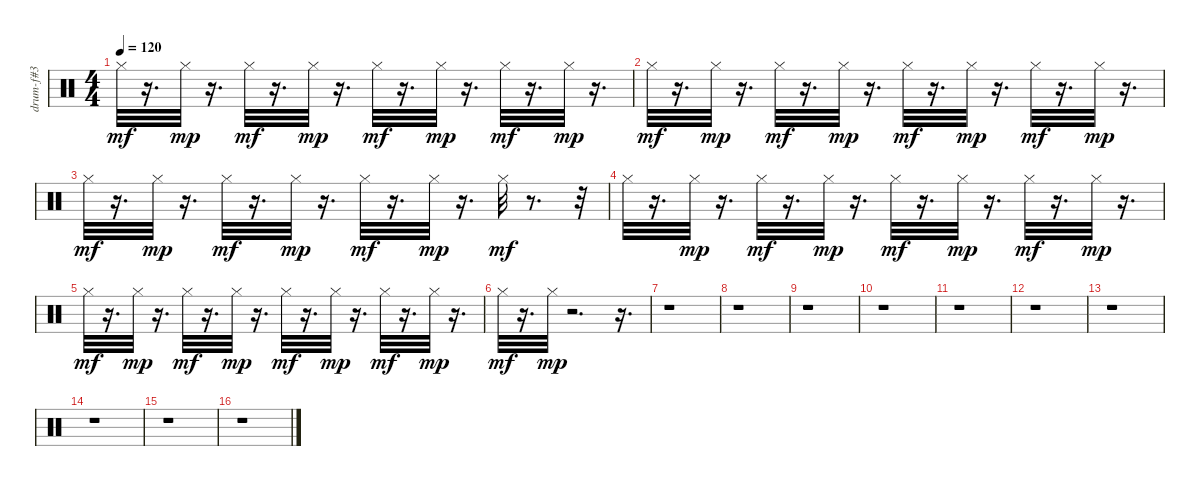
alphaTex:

\track ("drum-f#3" "drum-f#3") {instrument percussion}
\staff {score}
\articulation defaults
\ts (4 4)
\tempo 120
\clef neutral
\ks c "Hi-Hat (closed)".32{dy mf}
r.16{d} "Hi-Hat (closed)".32{dy mp} r.16{d} "Hi-Hat (closed)".32{dy mf} r.16{d} "Hi-Hat (closed)".32{dy mp} r.16{d} "Hi-Hat (closed)".32{dy mf} r.16{d} "Hi-Hat (closed)".32{dy mp} r.16{d} "Hi-Hat (closed)".32{dy mf} r.16{d} "Hi-Hat (closed)".32{dy mp} r.16{d} |
"Hi-Hat (closed)".32{dy mf} r.16{d} "Hi-Hat (closed)".32{dy mp} r.16{d} "Hi-Hat (closed)".32{dy mf} r.16{d} "Hi-Hat (closed)".32{dy mp} r.16{d} "Hi-Hat (closed)".32{dy mf} r.16{d} "Hi-Hat (closed)".32{dy mp} r.16{d} "Hi-Hat (closed)".32{dy mf} r.16{d} "Hi-Hat (closed)".32{dy mp} r.16{d} |
"Hi-Hat (closed)".32{dy mf} r.16{d} "Hi-Hat (closed)".32{dy mp} r.16{d} "Hi-Hat (closed)".32{dy mf} r.16{d} "Hi-Hat (closed)".32{dy mp} r.16{d} "Hi-Hat (closed)".32{dy mf} r.16{d} "Hi-Hat (closed)".32{dy mp} r.16{d} "Hi-Hat (closed)".32{dy mf} r.8{d} r.32 |
"Hi-Hat (closed)".32 r.16{d} "Hi-Hat (closed)".32{dy mp} r.16{d} "Hi-Hat (closed)".32{dy mf} r.16{d} "Hi-Hat (closed)".32{dy mp} r.16{d} "Hi-Hat (closed)".32{dy mf} r.16{d} "Hi-Hat (closed)".32{dy mp} r.16{d} "Hi-Hat (closed)".32{dy mf} r.16{d} "Hi-Hat (closed)".32{dy mp} r.16{d} |
"Hi-Hat (closed)".32{dy mf} r.16{d} "Hi-Hat (closed)".32{dy mp} r.16{d} "Hi-Hat (closed)".32{dy mf} r.16{d} "Hi-Hat (closed)".32{dy mp} r.16{d} "Hi-Hat (closed)".32{dy mf} r.16{d} "Hi-Hat (closed)".32{dy mp} r.16{d} "Hi-Hat (closed)".32{dy mf} r.16{d} "Hi-Hat (closed)".32{dy mp} r.16{d} |
"Hi-Hat (closed)".32{dy mf} r.16{d} "Hi-Hat (closed)".32{dy mp} r.2{d} r.16{d} |
r.1 |
r.1 |
r.1 |
r.1 |
r.1 |
r.1 |
r.1 |
r.1 |
r.1 |
r.1
